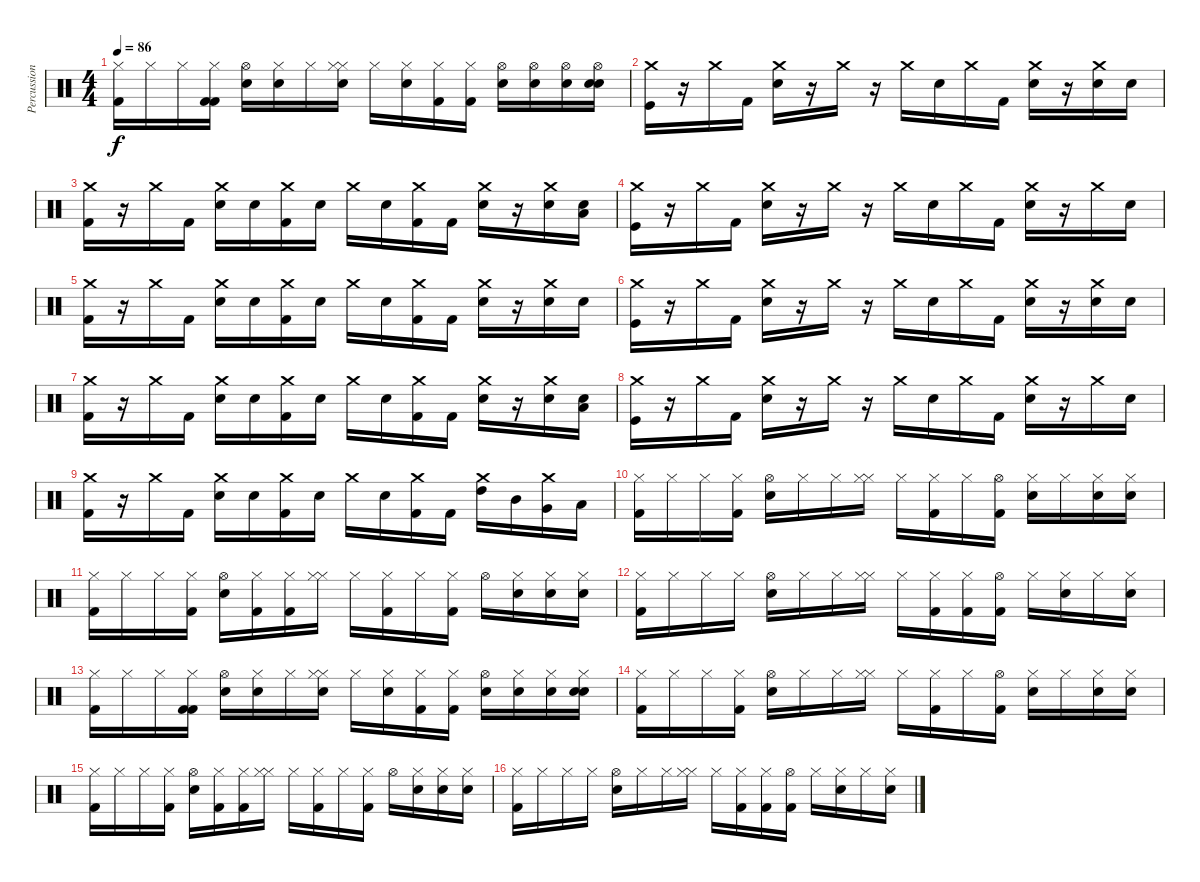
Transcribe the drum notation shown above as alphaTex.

\track ("Percussion" "Percussion") {instrument percussion}
\staff {score}
\articulation defaults
\ts (4 4)
\tempo 86
\clef neutral
\ks c
("Hi-Hat (closed)" "Kick (hit) 2").16{dy f} "Hi-Hat (closed)".16 "Hi-Hat (closed)".16 ("Hi-Hat (closed)" "Kick (hit) 2" "Kick (hit) 2").16 ("Hi-Hat (open)" "Electric Snare (hit)").16 ("Hi-Hat (closed)" "Electric Snare (hit)").16 "Hi-Hat (closed)".16 ("Hi-Hat (closed)" "Electric Snare (hit)" "Hi-Hat (closed)").16 "Hi-Hat (closed)".16 ("Hi-Hat (closed)" "Electric Snare (hit)").16 ("Hi-Hat (closed)" "Kick (hit) 2").16 ("Hi-Hat (closed)" "Kick (hit) 2").16 ("Hi-Hat (open)" "Electric Snare (hit)").16 ("Hi-Hat (open)" "Electric Snare (hit)").16 ("Hi-Hat (open)" "Electric Snare (hit)").16 ("Hi-Hat (open)" "Electric Snare (hit)" "Electric Snare (hit)").16 |
("Crash medium (hit)" "Kick (hit)").16 r.16 "Crash medium (hit)".16 "Kick (hit) 2".16 ("Crash medium (hit)" "Electric Snare (hit)").16 r.16 "Crash medium (hit)".16 r.16 "Crash medium (hit)".16 "Electric Snare (hit)".16 "Crash medium (hit)".16 "Kick (hit) 2".16 ("Crash medium (hit)" "Electric Snare (hit)").16 r.16 ("Crash medium (hit)" "Electric Snare (hit)").16 "Electric Snare (hit)".16 |
("Crash medium (hit)" "Kick (hit) 2").16 r.16 "Crash medium (hit)".16 "Kick (hit) 2".16 ("Crash medium (hit)" "Electric Snare (hit)").16 "Electric Snare (hit)".16 ("Crash medium (hit)" "Kick (hit) 2").16 "Electric Snare (hit)".16 "Crash medium (hit)".16 "Electric Snare (hit)".16 ("Crash medium (hit)" "Kick (hit) 2").16 "Kick (hit) 2".16 ("Crash medium (hit)" "Electric Snare (hit)").16 r.16 ("Crash medium (hit)" "Electric Snare (hit)").16 ("Electric Snare (hit)" "Low Floor Tom (hit)").16 |
("Crash medium (hit)" "Kick (hit)").16 r.16 "Crash medium (hit)".16 "Kick (hit) 2".16 ("Crash medium (hit)" "Electric Snare (hit)").16 r.16 "Crash medium (hit)".16 r.16 "Crash medium (hit)".16 "Electric Snare (hit)".16 "Crash medium (hit)".16 "Kick (hit) 2".16 ("Crash medium (hit)" "Electric Snare (hit)").16 r.16 "Crash medium (hit)".16 "Electric Snare (hit)".16 |
("Crash medium (hit)" "Kick (hit) 2").16 r.16 "Crash medium (hit)".16 "Kick (hit) 2".16 ("Crash medium (hit)" "Electric Snare (hit)").16 "Electric Snare (hit)".16 ("Crash medium (hit)" "Kick (hit) 2").16 "Electric Snare (hit)".16 "Crash medium (hit)".16 "Electric Snare (hit)".16 ("Crash medium (hit)" "Kick (hit) 2").16 "Kick (hit) 2".16 ("Crash medium (hit)" "Electric Snare (hit)").16 r.16 ("Crash medium (hit)" "Electric Snare (hit)").16 "Electric Snare (hit)".16 |
("Crash medium (hit)" "Kick (hit)").16 r.16 "Crash medium (hit)".16 "Kick (hit) 2".16 ("Crash medium (hit)" "Electric Snare (hit)").16 r.16 "Crash medium (hit)".16 r.16 "Crash medium (hit)".16 "Electric Snare (hit)".16 "Crash medium (hit)".16 "Kick (hit) 2".16 ("Crash medium (hit)" "Electric Snare (hit)").16 r.16 ("Crash medium (hit)" "Electric Snare (hit)").16 "Electric Snare (hit)".16 |
("Crash medium (hit)" "Kick (hit) 2").16 r.16 "Crash medium (hit)".16 "Kick (hit) 2".16 ("Crash medium (hit)" "Electric Snare (hit)").16 "Electric Snare (hit)".16 ("Crash medium (hit)" "Kick (hit) 2").16 "Electric Snare (hit)".16 "Crash medium (hit)".16 "Electric Snare (hit)".16 ("Crash medium (hit)" "Kick (hit) 2").16 "Kick (hit) 2".16 ("Crash medium (hit)" "Electric Snare (hit)").16 r.16 ("Crash medium (hit)" "Electric Snare (hit)").16 ("Electric Snare (hit)" "Low Floor Tom (hit)").16 |
("Crash medium (hit)" "Kick (hit)").16 r.16 "Crash medium (hit)".16 "Kick (hit) 2".16 ("Crash medium (hit)" "Electric Snare (hit)").16 r.16 "Crash medium (hit)".16 r.16 "Crash medium (hit)".16 "Electric Snare (hit)".16 "Crash medium (hit)".16 "Kick (hit) 2".16 ("Crash medium (hit)" "Electric Snare (hit)").16 r.16 "Crash medium (hit)".16 "Electric Snare (hit)".16 |
("Crash medium (hit)" "Kick (hit) 2").16 r.16 "Crash medium (hit)".16 "Kick (hit) 2".16 ("Crash medium (hit)" "Electric Snare (hit)").16 "Electric Snare (hit)".16 ("Crash medium (hit)" "Kick (hit) 2").16 "Electric Snare (hit)".16 "Crash medium (hit)".16 "Electric Snare (hit)".16 ("Crash medium (hit)" "Kick (hit) 2").16 "Kick (hit) 2".16 ("Crash medium (hit)" "High Tom (hit)").16 "Mid Tom (hit)".16 ("Crash medium (hit)" "Very Low Tom (hit)").16 "Low Floor Tom (hit)".16 |
("Hi-Hat (closed)" "Kick (hit) 2").16 "Hi-Hat (closed)".16 "Hi-Hat (closed)".16 ("Hi-Hat (closed)" "Kick (hit) 2").16 ("Hi-Hat (open)" "Electric Snare (hit)").16 "Hi-Hat (closed)".16 "Hi-Hat (closed)".16 ("Hi-Hat (closed)" "Hi-Hat (closed)").16 "Hi-Hat (closed)".16 ("Hi-Hat (closed)" "Kick (hit) 2").16 "Hi-Hat (closed)".16 ("Hi-Hat (open)" "Kick (hit) 2").16 ("Hi-Hat (closed)" "Electric Snare (hit)").16 "Hi-Hat (closed)".16 ("Hi-Hat (closed)" "Electric Snare (hit)").16 ("Hi-Hat (closed)" "Electric Snare (hit)").16 |
("Hi-Hat (closed)" "Kick (hit) 2").16 "Hi-Hat (closed)".16 "Hi-Hat (closed)".16 ("Hi-Hat (closed)" "Kick (hit) 2").16 ("Hi-Hat (open)" "Electric Snare (hit)").16 ("Hi-Hat (closed)" "Kick (hit) 2").16 ("Hi-Hat (closed)" "Kick (hit) 2").16 ("Hi-Hat (closed)" "Hi-Hat (closed)").16 "Hi-Hat (closed)".16 ("Hi-Hat (closed)" "Kick (hit) 2").16 "Hi-Hat (closed)".16 ("Hi-Hat (closed)" "Kick (hit) 2").16 "Hi-Hat (open)".16 ("Hi-Hat (closed)" "Electric Snare (hit)").16 ("Hi-Hat (closed)" "Electric Snare (hit)").16 ("Hi-Hat (closed)" "Electric Snare (hit)").16 |
("Hi-Hat (closed)" "Kick (hit) 2").16 "Hi-Hat (closed)".16 "Hi-Hat (closed)".16 "Hi-Hat (closed)".16 ("Hi-Hat (open)" "Electric Snare (hit)").16 "Hi-Hat (closed)".16 "Hi-Hat (closed)".16 ("Hi-Hat (closed)" "Hi-Hat (closed)").16 "Hi-Hat (closed)".16 ("Hi-Hat (closed)" "Kick (hit) 2").16 ("Hi-Hat (closed)" "Kick (hit) 2").16 ("Hi-Hat (open)" "Kick (hit) 2").16 "Hi-Hat (closed)".16 ("Hi-Hat (closed)" "Electric Snare (hit)").16 "Hi-Hat (closed)".16 ("Hi-Hat (closed)" "Electric Snare (hit)").16 |
("Hi-Hat (closed)" "Kick (hit) 2").16 "Hi-Hat (closed)".16 "Hi-Hat (closed)".16 ("Hi-Hat (closed)" "Kick (hit) 2" "Kick (hit) 2").16 ("Hi-Hat (open)" "Electric Snare (hit)").16 ("Hi-Hat (closed)" "Electric Snare (hit)").16 "Hi-Hat (closed)".16 ("Hi-Hat (closed)" "Electric Snare (hit)" "Hi-Hat (closed)").16 "Hi-Hat (closed)".16 ("Hi-Hat (closed)" "Electric Snare (hit)").16 ("Hi-Hat (closed)" "Kick (hit) 2").16 ("Hi-Hat (closed)" "Kick (hit) 2").16 ("Hi-Hat (open)" "Electric Snare (hit)").16 ("Hi-Hat (closed)" "Electric Snare (hit)").16 ("Hi-Hat (closed)" "Electric Snare (hit)").16 ("Hi-Hat (closed)" "Electric Snare (hit)" "Electric Snare (hit)").16 |
("Hi-Hat (closed)" "Kick (hit) 2").16 "Hi-Hat (closed)".16 "Hi-Hat (closed)".16 ("Hi-Hat (closed)" "Kick (hit) 2").16 ("Hi-Hat (open)" "Electric Snare (hit)").16 "Hi-Hat (closed)".16 "Hi-Hat (closed)".16 ("Hi-Hat (closed)" "Hi-Hat (closed)").16 "Hi-Hat (closed)".16 ("Hi-Hat (closed)" "Kick (hit) 2").16 "Hi-Hat (closed)".16 ("Hi-Hat (open)" "Kick (hit) 2").16 ("Hi-Hat (closed)" "Electric Snare (hit)").16 "Hi-Hat (closed)".16 ("Hi-Hat (closed)" "Electric Snare (hit)").16 ("Hi-Hat (closed)" "Electric Snare (hit)").16 |
("Hi-Hat (closed)" "Kick (hit) 2").16 "Hi-Hat (closed)".16 "Hi-Hat (closed)".16 ("Hi-Hat (closed)" "Kick (hit) 2").16 ("Hi-Hat (open)" "Electric Snare (hit)").16 ("Hi-Hat (closed)" "Kick (hit) 2").16 ("Hi-Hat (closed)" "Kick (hit) 2").16 ("Hi-Hat (closed)" "Hi-Hat (closed)").16 "Hi-Hat (closed)".16 ("Hi-Hat (closed)" "Kick (hit) 2").16 "Hi-Hat (closed)".16 ("Hi-Hat (closed)" "Kick (hit) 2").16 "Hi-Hat (open)".16 ("Hi-Hat (closed)" "Electric Snare (hit)").16 ("Hi-Hat (closed)" "Electric Snare (hit)").16 ("Hi-Hat (closed)" "Electric Snare (hit)").16 |
("Hi-Hat (closed)" "Kick (hit) 2").16 "Hi-Hat (closed)".16 "Hi-Hat (closed)".16 "Hi-Hat (closed)".16 ("Hi-Hat (open)" "Electric Snare (hit)").16 "Hi-Hat (closed)".16 "Hi-Hat (closed)".16 ("Hi-Hat (closed)" "Hi-Hat (closed)").16 "Hi-Hat (closed)".16 ("Hi-Hat (closed)" "Kick (hit) 2").16 ("Hi-Hat (closed)" "Kick (hit) 2").16 ("Hi-Hat (open)" "Kick (hit) 2").16 "Hi-Hat (closed)".16 ("Hi-Hat (closed)" "Electric Snare (hit)").16 "Hi-Hat (closed)".16 ("Hi-Hat (closed)" "Electric Snare (hit)").16
